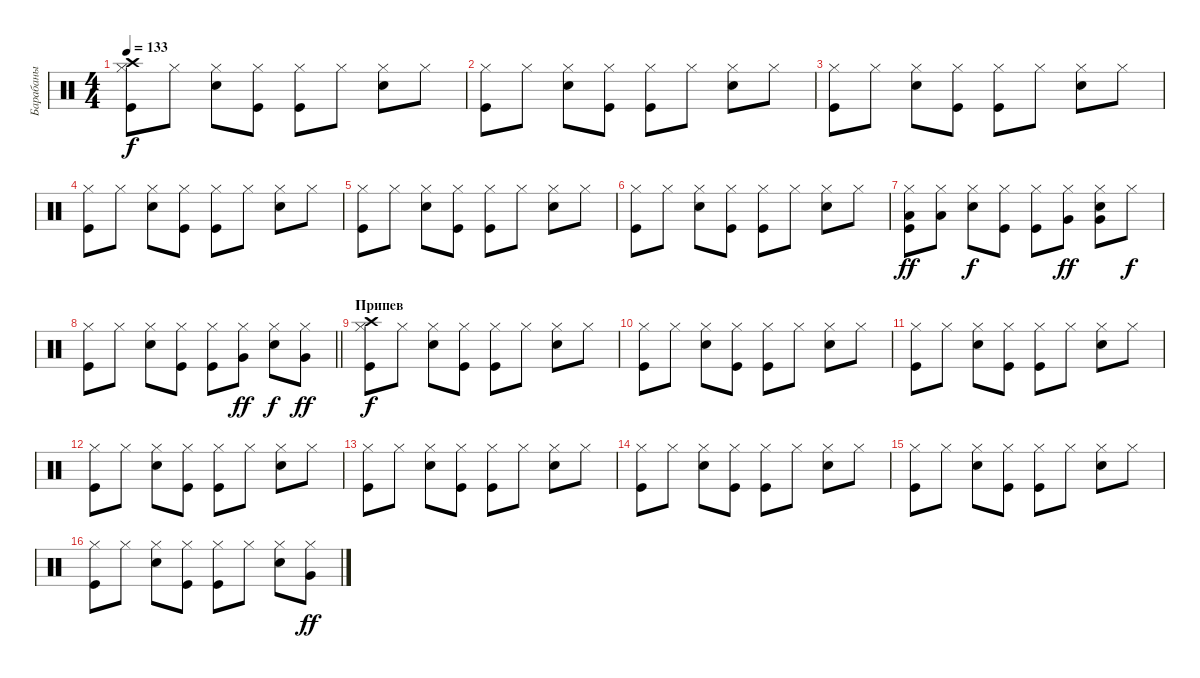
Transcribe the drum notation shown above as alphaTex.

\track ("Барабаны" "Барабаны") {instrument percussion}
\staff {score}
\articulation defaults
\ts (4 4)
\tempo 133
\clef neutral
\ks c
("Kick (hit)" "Hi-Hat (closed)" "Crash high (hit)").8{dy f} "Hi-Hat (closed)".8 ("Snare (hit) 2" "Hi-Hat (closed)").8 ("Kick (hit)" "Hi-Hat (closed)").8 ("Kick (hit)" "Hi-Hat (closed)").8 "Hi-Hat (closed)".8 ("Snare (hit) 2" "Hi-Hat (closed)").8 "Hi-Hat (closed)".8 |
("Kick (hit)" "Hi-Hat (closed)").8 "Hi-Hat (closed)".8 ("Snare (hit) 2" "Hi-Hat (closed)").8 ("Kick (hit)" "Hi-Hat (closed)").8 ("Kick (hit)" "Hi-Hat (closed)").8 "Hi-Hat (closed)".8 ("Snare (hit) 2" "Hi-Hat (closed)").8 "Hi-Hat (closed)".8 |
("Kick (hit)" "Hi-Hat (closed)").8 "Hi-Hat (closed)".8 ("Snare (hit) 2" "Hi-Hat (closed)").8 ("Kick (hit)" "Hi-Hat (closed)").8 ("Kick (hit)" "Hi-Hat (closed)").8 "Hi-Hat (closed)".8 ("Snare (hit) 2" "Hi-Hat (closed)").8 "Hi-Hat (closed)".8 |
("Kick (hit)" "Hi-Hat (closed)").8 "Hi-Hat (closed)".8 ("Snare (hit) 2" "Hi-Hat (closed)").8 ("Kick (hit)" "Hi-Hat (closed)").8 ("Kick (hit)" "Hi-Hat (closed)").8 "Hi-Hat (closed)".8 ("Snare (hit) 2" "Hi-Hat (closed)").8 "Hi-Hat (closed)".8 |
("Kick (hit)" "Hi-Hat (closed)").8 "Hi-Hat (closed)".8 ("Snare (hit) 2" "Hi-Hat (closed)").8 ("Kick (hit)" "Hi-Hat (closed)").8 ("Kick (hit)" "Hi-Hat (closed)").8 "Hi-Hat (closed)".8 ("Snare (hit) 2" "Hi-Hat (closed)").8 "Hi-Hat (closed)".8 |
("Kick (hit)" "Hi-Hat (closed)").8 "Hi-Hat (closed)".8 ("Snare (hit) 2" "Hi-Hat (closed)").8 ("Kick (hit)" "Hi-Hat (closed)").8 ("Kick (hit)" "Hi-Hat (closed)").8 "Hi-Hat (closed)".8 ("Snare (hit) 2" "Hi-Hat (closed)").8 "Hi-Hat (closed)".8 |
("Kick (hit)" "Hi-Hat (closed)" "Low Tom (hit)").8{dy ff} ("Hi-Hat (closed)" "Low Tom (hit)").8 ("Snare (hit) 2" "Hi-Hat (closed)").8{dy f} ("Kick (hit)" "Hi-Hat (closed)").8 ("Kick (hit)" "Hi-Hat (closed)").8 ("Hi-Hat (closed)" "Very Low Tom (hit)").8{dy ff} ("Snare (hit) 2" "Hi-Hat (closed)" "Very Low Tom (hit)").8 "Hi-Hat (closed)".8{dy f} |
\barLineRight lightlight
("Kick (hit)" "Hi-Hat (closed)").8 "Hi-Hat (closed)".8 ("Snare (hit) 2" "Hi-Hat (closed)").8 ("Kick (hit)" "Hi-Hat (closed)").8 ("Kick (hit)" "Hi-Hat (closed)").8 ("Hi-Hat (closed)" "Very Low Tom (hit)").8{dy ff} ("Snare (hit) 2" "Hi-Hat (closed)").8{dy f} ("Hi-Hat (closed)" "Very Low Tom (hit)").8{dy ff} |
\section ("" "Припев")
("Kick (hit)" "Hi-Hat (closed)" "Crash high (hit)").8{dy f} "Hi-Hat (closed)".8 ("Snare (hit) 2" "Hi-Hat (closed)").8 ("Kick (hit)" "Hi-Hat (closed)").8 ("Kick (hit)" "Hi-Hat (closed)").8 "Hi-Hat (closed)".8 ("Snare (hit) 2" "Hi-Hat (closed)").8 "Hi-Hat (closed)".8 |
("Kick (hit)" "Hi-Hat (closed)").8 "Hi-Hat (closed)".8 ("Snare (hit) 2" "Hi-Hat (closed)").8 ("Kick (hit)" "Hi-Hat (closed)").8 ("Kick (hit)" "Hi-Hat (closed)").8 "Hi-Hat (closed)".8 ("Snare (hit) 2" "Hi-Hat (closed)").8 "Hi-Hat (closed)".8 |
("Kick (hit)" "Hi-Hat (closed)").8 "Hi-Hat (closed)".8 ("Snare (hit) 2" "Hi-Hat (closed)").8 ("Kick (hit)" "Hi-Hat (closed)").8 ("Kick (hit)" "Hi-Hat (closed)").8 "Hi-Hat (closed)".8 ("Snare (hit) 2" "Hi-Hat (closed)").8 "Hi-Hat (closed)".8 |
("Kick (hit)" "Hi-Hat (closed)").8 "Hi-Hat (closed)".8 ("Snare (hit) 2" "Hi-Hat (closed)").8 ("Kick (hit)" "Hi-Hat (closed)").8 ("Kick (hit)" "Hi-Hat (closed)").8 "Hi-Hat (closed)".8 ("Snare (hit) 2" "Hi-Hat (closed)").8 "Hi-Hat (closed)".8 |
("Kick (hit)" "Hi-Hat (closed)").8 "Hi-Hat (closed)".8 ("Snare (hit) 2" "Hi-Hat (closed)").8 ("Kick (hit)" "Hi-Hat (closed)").8 ("Kick (hit)" "Hi-Hat (closed)").8 "Hi-Hat (closed)".8 ("Snare (hit) 2" "Hi-Hat (closed)").8 "Hi-Hat (closed)".8 |
("Kick (hit)" "Hi-Hat (closed)").8 "Hi-Hat (closed)".8 ("Snare (hit) 2" "Hi-Hat (closed)").8 ("Kick (hit)" "Hi-Hat (closed)").8 ("Kick (hit)" "Hi-Hat (closed)").8 "Hi-Hat (closed)".8 ("Snare (hit) 2" "Hi-Hat (closed)").8 "Hi-Hat (closed)".8 |
("Kick (hit)" "Hi-Hat (closed)").8 "Hi-Hat (closed)".8 ("Snare (hit) 2" "Hi-Hat (closed)").8 ("Kick (hit)" "Hi-Hat (closed)").8 ("Kick (hit)" "Hi-Hat (closed)").8 "Hi-Hat (closed)".8 ("Snare (hit) 2" "Hi-Hat (closed)").8 "Hi-Hat (closed)".8 |
("Kick (hit)" "Hi-Hat (closed)").8 "Hi-Hat (closed)".8 ("Snare (hit) 2" "Hi-Hat (closed)").8 ("Kick (hit)" "Hi-Hat (closed)").8 ("Kick (hit)" "Hi-Hat (closed)").8 "Hi-Hat (closed)".8 ("Snare (hit) 2" "Hi-Hat (closed)").8 ("Hi-Hat (closed)" "Very Low Tom (hit)").8{dy ff}
